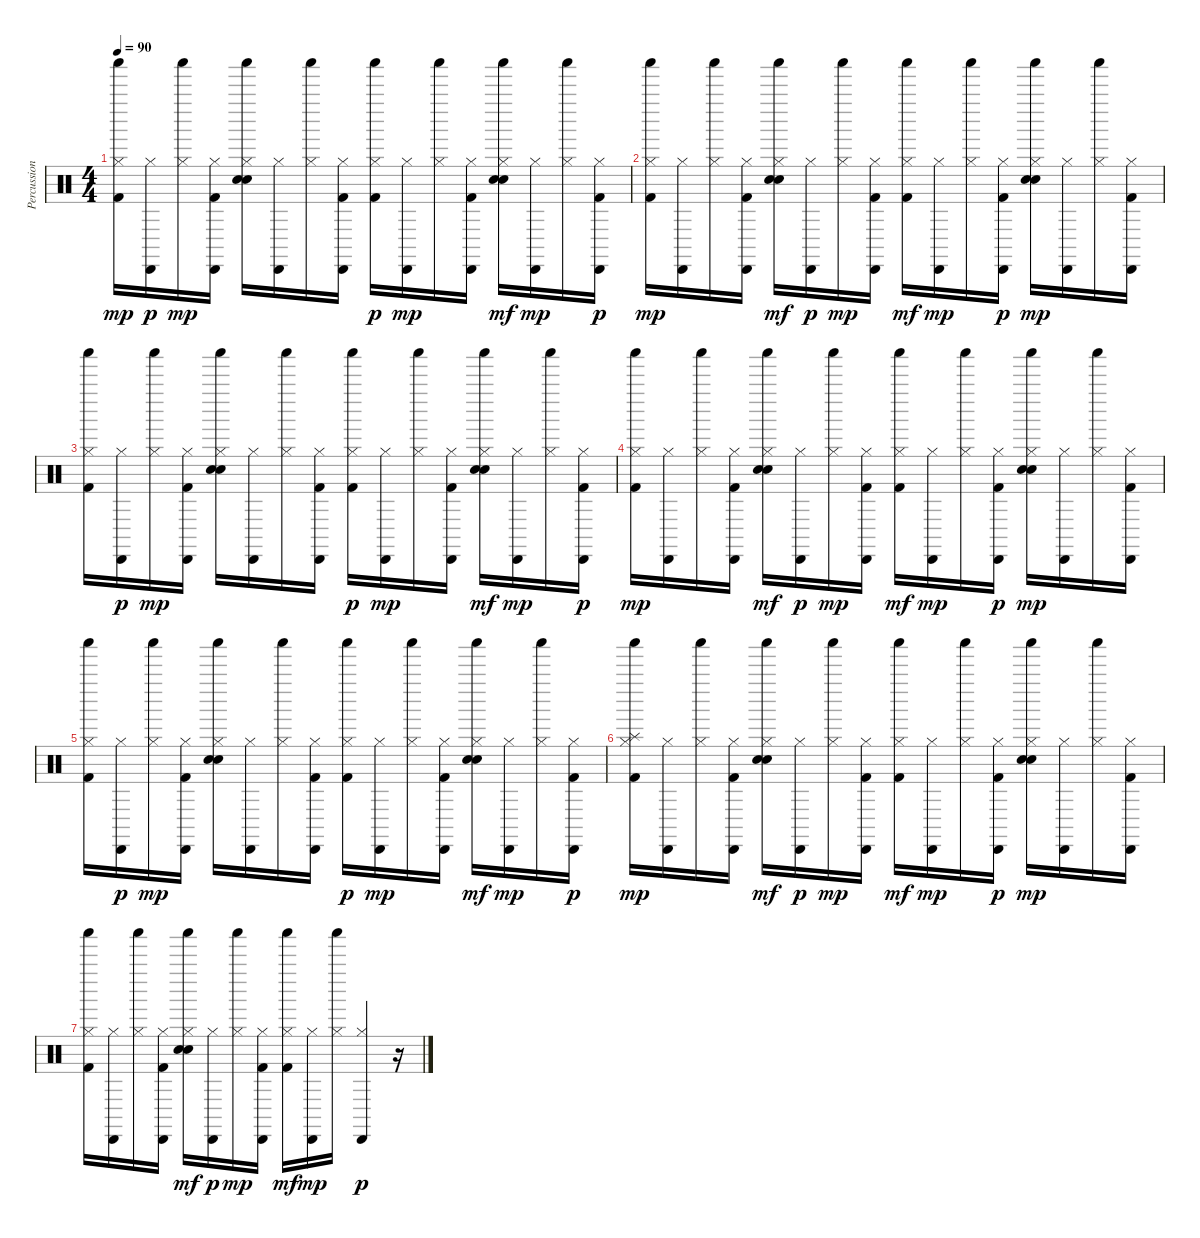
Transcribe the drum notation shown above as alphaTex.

\track ("Percussions" "Percussion") {instrument percussion}
\staff {score}
\articulation defaults
\ts (4 4)
\tempo 90
\clef neutral
\ks c
("Kick (hit) 2" "Hi-Hat (closed)" "Shaker (hit)").16{dy mp} ("Hi-Hat (closed)" "Cabasa (hit)").16{dy p} ("Hi-Hat (closed)" "Shaker (hit)").16{dy mp} ("Kick (hit) 2" "Hi-Hat (closed)" "Cabasa (hit)").16 ("Hand Clap (hit)" "Electric Snare (hit)" "Hi-Hat (closed)" "Shaker (hit)").16 ("Hi-Hat (closed)" "Cabasa (hit)").16 ("Hi-Hat (closed)" "Shaker (hit)").16 ("Kick (hit) 2" "Hi-Hat (closed)" "Cabasa (hit)").16 ("Kick (hit) 2" "Hi-Hat (closed)" "Shaker (hit)").16{dy p} ("Hi-Hat (closed)" "Cabasa (hit)").16{dy mp} ("Hi-Hat (closed)" "Shaker (hit)").16 ("Kick (hit) 2" "Hi-Hat (closed)" "Cabasa (hit)").16 ("Hand Clap (hit)" "Electric Snare (hit)" "Hi-Hat (closed)" "Shaker (hit)").16{dy mf} ("Hi-Hat (closed)" "Cabasa (hit)").16{dy mp} ("Hi-Hat (closed)" "Shaker (hit)").16 ("Kick (hit) 2" "Hi-Hat (closed)" "Cabasa (hit)").16{dy p} |
("Kick (hit) 2" "Hi-Hat (closed)" "Shaker (hit)").16{dy mp} ("Hi-Hat (closed)" "Cabasa (hit)").16 ("Hi-Hat (closed)" "Shaker (hit)").16 ("Kick (hit) 2" "Hi-Hat (closed)" "Cabasa (hit)").16 ("Hand Clap (hit)" "Electric Snare (hit)" "Hi-Hat (closed)" "Shaker (hit)").16{dy mf} ("Hi-Hat (closed)" "Cabasa (hit)").16{dy p} ("Hi-Hat (closed)" "Shaker (hit)").16{dy mp} ("Kick (hit) 2" "Hi-Hat (closed)" "Cabasa (hit)").16 ("Kick (hit) 2" "Hi-Hat (closed)" "Shaker (hit)").16{dy mf} ("Hi-Hat (closed)" "Cabasa (hit)").16{dy mp} ("Hi-Hat (closed)" "Shaker (hit)").16 ("Kick (hit) 2" "Hi-Hat (closed)" "Cabasa (hit)").16{dy p} ("Hand Clap (hit)" "Electric Snare (hit)" "Hi-Hat (closed)" "Shaker (hit)").16{dy mp} ("Hi-Hat (closed)" "Cabasa (hit)").16 ("Hi-Hat (closed)" "Shaker (hit)").16 ("Kick (hit) 2" "Hi-Hat (closed)" "Cabasa (hit)").16 |
("Kick (hit) 2" "Hi-Hat (closed)" "Shaker (hit)").16 ("Hi-Hat (closed)" "Cabasa (hit)").16{dy p} ("Hi-Hat (closed)" "Shaker (hit)").16{dy mp} ("Kick (hit) 2" "Hi-Hat (closed)" "Cabasa (hit)").16 ("Hand Clap (hit)" "Electric Snare (hit)" "Hi-Hat (closed)" "Shaker (hit)").16 ("Hi-Hat (closed)" "Cabasa (hit)").16 ("Hi-Hat (closed)" "Shaker (hit)").16 ("Kick (hit) 2" "Hi-Hat (closed)" "Cabasa (hit)").16 ("Kick (hit) 2" "Hi-Hat (closed)" "Shaker (hit)").16{dy p} ("Hi-Hat (closed)" "Cabasa (hit)").16{dy mp} ("Hi-Hat (closed)" "Shaker (hit)").16 ("Kick (hit) 2" "Hi-Hat (closed)" "Cabasa (hit)").16 ("Hand Clap (hit)" "Electric Snare (hit)" "Hi-Hat (closed)" "Shaker (hit)").16{dy mf} ("Hi-Hat (closed)" "Cabasa (hit)").16{dy mp} ("Hi-Hat (closed)" "Shaker (hit)").16 ("Kick (hit) 2" "Hi-Hat (closed)" "Cabasa (hit)").16{dy p} |
("Kick (hit) 2" "Hi-Hat (closed)" "Shaker (hit)").16{dy mp} ("Hi-Hat (closed)" "Cabasa (hit)").16 ("Hi-Hat (closed)" "Shaker (hit)").16 ("Kick (hit) 2" "Hi-Hat (closed)" "Cabasa (hit)").16 ("Hand Clap (hit)" "Electric Snare (hit)" "Hi-Hat (closed)" "Shaker (hit)").16{dy mf} ("Hi-Hat (closed)" "Cabasa (hit)").16{dy p} ("Hi-Hat (closed)" "Shaker (hit)").16{dy mp} ("Kick (hit) 2" "Hi-Hat (closed)" "Cabasa (hit)").16 ("Kick (hit) 2" "Hi-Hat (closed)" "Shaker (hit)").16{dy mf} ("Hi-Hat (closed)" "Cabasa (hit)").16{dy mp} ("Hi-Hat (closed)" "Shaker (hit)").16 ("Kick (hit) 2" "Hi-Hat (closed)" "Cabasa (hit)").16{dy p} ("Hand Clap (hit)" "Electric Snare (hit)" "Hi-Hat (closed)" "Shaker (hit)").16{dy mp} ("Hi-Hat (closed)" "Cabasa (hit)").16 ("Hi-Hat (closed)" "Shaker (hit)").16 ("Kick (hit) 2" "Hi-Hat (closed)" "Cabasa (hit)").16 |
("Kick (hit) 2" "Hi-Hat (closed)" "Shaker (hit)").16 ("Hi-Hat (closed)" "Cabasa (hit)").16{dy p} ("Hi-Hat (closed)" "Shaker (hit)").16{dy mp} ("Kick (hit) 2" "Hi-Hat (closed)" "Cabasa (hit)").16 ("Hand Clap (hit)" "Electric Snare (hit)" "Hi-Hat (closed)" "Shaker (hit)").16 ("Hi-Hat (closed)" "Cabasa (hit)").16 ("Hi-Hat (closed)" "Shaker (hit)").16 ("Kick (hit) 2" "Hi-Hat (closed)" "Cabasa (hit)").16 ("Kick (hit) 2" "Hi-Hat (closed)" "Shaker (hit)").16{dy p} ("Hi-Hat (closed)" "Cabasa (hit)").16{dy mp} ("Hi-Hat (closed)" "Shaker (hit)").16 ("Kick (hit) 2" "Hi-Hat (closed)" "Cabasa (hit)").16 ("Hand Clap (hit)" "Electric Snare (hit)" "Hi-Hat (closed)" "Shaker (hit)").16{dy mf} ("Hi-Hat (closed)" "Cabasa (hit)").16{dy mp} ("Hi-Hat (closed)" "Shaker (hit)").16 ("Kick (hit) 2" "Hi-Hat (closed)" "Cabasa (hit)").16{dy p} |
("Kick (hit) 2" "Hi-Hat (closed)" "Splash (hit)" "Shaker (hit)").16{dy mp} ("Hi-Hat (closed)" "Cabasa (hit)").16 ("Hi-Hat (closed)" "Shaker (hit)").16 ("Kick (hit) 2" "Hi-Hat (closed)" "Cabasa (hit)").16 ("Hand Clap (hit)" "Electric Snare (hit)" "Hi-Hat (closed)" "Shaker (hit)").16{dy mf} ("Hi-Hat (closed)" "Cabasa (hit)").16{dy p} ("Hi-Hat (closed)" "Shaker (hit)").16{dy mp} ("Kick (hit) 2" "Hi-Hat (closed)" "Cabasa (hit)").16 ("Kick (hit) 2" "Hi-Hat (closed)" "Shaker (hit)").16{dy mf} ("Hi-Hat (closed)" "Cabasa (hit)").16{dy mp} ("Hi-Hat (closed)" "Shaker (hit)").16 ("Kick (hit) 2" "Hi-Hat (closed)" "Cabasa (hit)").16{dy p} ("Hand Clap (hit)" "Electric Snare (hit)" "Hi-Hat (closed)" "Shaker (hit)").16{dy mp} ("Hi-Hat (closed)" "Cabasa (hit)").16 ("Hi-Hat (closed)" "Shaker (hit)").16 ("Kick (hit) 2" "Hi-Hat (closed)" "Cabasa (hit)").16 |
("Kick (hit) 2" "Hi-Hat (closed)" "Shaker (hit)").16 ("Hi-Hat (closed)" "Cabasa (hit)").16 ("Hi-Hat (closed)" "Shaker (hit)").16 ("Kick (hit) 2" "Hi-Hat (closed)" "Cabasa (hit)").16 ("Hand Clap (hit)" "Electric Snare (hit)" "Hi-Hat (closed)" "Shaker (hit)").16{dy mf} ("Hi-Hat (closed)" "Cabasa (hit)").16{dy p} ("Hi-Hat (closed)" "Shaker (hit)").16{dy mp} ("Kick (hit) 2" "Hi-Hat (closed)" "Cabasa (hit)").16 ("Kick (hit) 2" "Hi-Hat (closed)" "Shaker (hit)").16{dy mf} ("Hi-Hat (closed)" "Cabasa (hit)").16{dy mp} ("Hi-Hat (closed)" "Shaker (hit)").16 ("Hi-Hat (closed)" "Cabasa (hit)").4{dy p} r.16
